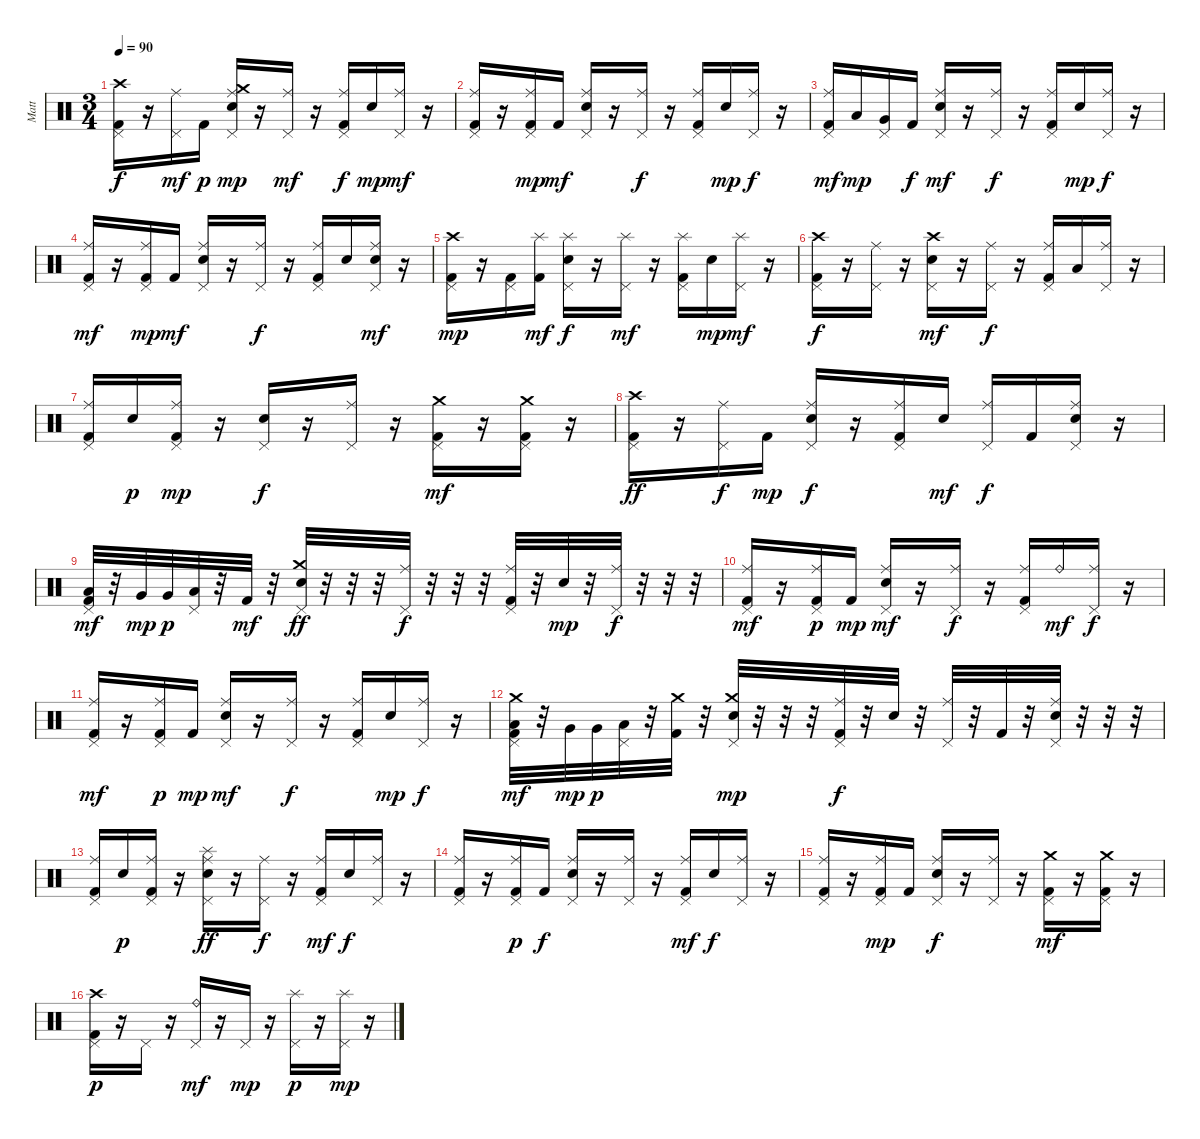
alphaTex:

\track ("Matt" "Matt") {instrument percussion}
\staff {score}
\articulation defaults
\ts (3 4)
\tempo 90
\clef neutral
\ks c
("Crash high (hit)" "Pedal Hi-Hat (hit)" "Kick (hit) 2").16{dy f} r.16 ("Pedal Hi-Hat (hit)" "Ride (middle)").16{dy mf} "Kick (hit) 2".16{dy p} ("Crash medium (hit)" "Pedal Hi-Hat (hit)" "Ride (middle)" "Electric Snare (hit)").16{dy mp} r.16 ("Pedal Hi-Hat (hit)" "Ride (middle)").16{dy mf} r.16 ("Pedal Hi-Hat (hit)" "Ride (middle)" "Kick (hit) 2").16{dy f} "Electric Snare (hit)".16{dy mp} ("Pedal Hi-Hat (hit)" "Ride (middle)").16{dy mf} r.16 |
("Pedal Hi-Hat (hit)" "Ride (middle)" "Kick (hit) 2").16 r.16 ("Pedal Hi-Hat (hit)" "Ride (middle)" "Kick (hit) 2").16{dy mp} "Kick (hit) 2".16{dy mf} ("Pedal Hi-Hat (hit)" "Ride (middle)" "Electric Snare (hit)").16 r.16 ("Pedal Hi-Hat (hit)" "Ride (middle)").16{dy f} r.16 ("Pedal Hi-Hat (hit)" "Ride (middle)" "Kick (hit) 2").16 "Electric Snare (hit)".16{dy mp} ("Pedal Hi-Hat (hit)" "Ride (middle)").16{dy f} r.16 |
("Pedal Hi-Hat (hit)" "Ride (middle)" "Kick (hit) 2").16{dy mf} "Low Tom (hit)".16{dy mp} ("Pedal Hi-Hat (hit)" "Very Low Tom (hit)").16 "Kick (hit) 2".16{dy f} ("Pedal Hi-Hat (hit)" "Ride (middle)" "Electric Snare (hit)").16{dy mf} r.16 ("Pedal Hi-Hat (hit)" "Ride (middle)").16{dy f} r.16 ("Pedal Hi-Hat (hit)" "Ride (middle)" "Kick (hit) 2").16 "Electric Snare (hit)".16{dy mp} ("Pedal Hi-Hat (hit)" "Ride (middle)").16{dy f} r.16 |
("Pedal Hi-Hat (hit)" "Ride (middle)" "Kick (hit) 2").16{dy mf} r.16 ("Pedal Hi-Hat (hit)" "Ride (middle)" "Kick (hit) 2").16{dy mp} "Kick (hit) 2".16{dy mf} ("Pedal Hi-Hat (hit)" "Ride (middle)" "Electric Snare (hit)").16 r.16 ("Pedal Hi-Hat (hit)" "Ride (middle)").16{dy f} r.16 ("Pedal Hi-Hat (hit)" "Ride (middle)" "Kick (hit) 2").16 "Electric Snare (hit)".16 ("Pedal Hi-Hat (hit)" "Ride (middle)" "Electric Snare (hit)").16{dy mf} r.16 |
("Crash high (hit)" "Pedal Hi-Hat (hit)" "Kick (hit) 2").16{dy mp} r.16 ("Pedal Hi-Hat (hit)" "Kick (hit) 2").16 ("Splash (hit)" "Kick (hit) 2").16{dy mf} ("Pedal Hi-Hat (hit)" "Splash (hit)" "Electric Snare (hit)").16{dy f} r.16 ("Pedal Hi-Hat (hit)" "Splash (hit)").16{dy mf} r.16 ("Pedal Hi-Hat (hit)" "Splash (hit)" "Kick (hit) 2").16 "Electric Snare (hit)".16{dy mp} ("Pedal Hi-Hat (hit)" "Splash (hit)").16{dy mf} r.16 |
("Crash high (hit)" "Pedal Hi-Hat (hit)" "Kick (hit) 2").16{dy f} r.16 ("Pedal Hi-Hat (hit)" "Ride (middle)").16 r.16 ("Crash high (hit)" "Pedal Hi-Hat (hit)" "Electric Snare (hit)").16{dy mf} r.16 ("Pedal Hi-Hat (hit)" "Ride (middle)").16{dy f} r.16 ("Pedal Hi-Hat (hit)" "Ride (middle)" "Kick (hit) 2").16 "Low Tom (hit)".16 ("Pedal Hi-Hat (hit)" "Ride (middle)").16 r.16 |
("Pedal Hi-Hat (hit)" "Ride (middle)" "Kick (hit) 2").16 "Electric Snare (hit)".16{dy p} ("Pedal Hi-Hat (hit)" "Ride (middle)" "Kick (hit) 2").16{dy mp} r.16 ("Pedal Hi-Hat (hit)" "Electric Snare (hit)").16{dy f} r.16 ("Pedal Hi-Hat (hit)" "Ride (middle)").16 r.16 ("Crash medium (hit)" "Pedal Hi-Hat (hit)" "Kick (hit) 2").16{dy mf} r.16 ("Crash medium (hit)" "Pedal Hi-Hat (hit)" "Kick (hit) 2").16 r.16 |
("Crash high (hit)" "Pedal Hi-Hat (hit)" "Kick (hit) 2").16{dy ff} r.16 ("Pedal Hi-Hat (hit)" "Ride (middle)").16{dy f} "Kick (hit) 2".16{dy mp} ("Pedal Hi-Hat (hit)" "Ride (middle)" "Electric Snare (hit)").16{dy f} r.16 ("Pedal Hi-Hat (hit)" "Ride (middle)" "Kick (hit) 2").16 "Electric Snare (hit)".16{dy mf} ("Pedal Hi-Hat (hit)" "Ride (middle)").16{dy f} "Kick (hit) 2".16 ("Pedal Hi-Hat (hit)" "Ride (middle)" "Electric Snare (hit)").16 r.16 |
("Pedal Hi-Hat (hit)" "Low Tom (hit)" "Kick (hit) 2").32{dy mf} r.32 "Very Low Tom (hit)".32{dy mp} "Very Low Tom (hit)".32{dy p} ("Pedal Hi-Hat (hit)" "Low Floor Tom (hit)").32 r.32 "Kick (hit) 2".32{dy mf} r.32 ("Crash medium (hit)" "Pedal Hi-Hat (hit)" "Electric Snare (hit)").32{dy ff} r.32 r.32 r.32 ("Pedal Hi-Hat (hit)" "Ride (middle)").32{dy f} r.32 r.32 r.32 ("Pedal Hi-Hat (hit)" "Ride (middle)" "Kick (hit) 2").32 r.32 "Electric Snare (hit)".32{dy mp} r.32 ("Pedal Hi-Hat (hit)" "Ride (middle)").32{dy f} r.32 r.32 r.32 |
("Pedal Hi-Hat (hit)" "Ride (middle)" "Kick (hit) 2").16{dy mf} r.16 ("Pedal Hi-Hat (hit)" "Ride (middle)" "Kick (hit) 2").16{dy p} "Kick (hit) 2".16{dy mp} ("Pedal Hi-Hat (hit)" "Ride (middle)" "Electric Snare (hit)").16{dy mf} r.16 ("Pedal Hi-Hat (hit)" "Ride (middle)").16{dy f} r.16 ("Pedal Hi-Hat (hit)" "Ride (middle)" "Kick (hit) 2").16 "Ride (bell)".16{dy mf} ("Pedal Hi-Hat (hit)" "Ride (middle)").16{dy f} r.16 |
("Pedal Hi-Hat (hit)" "Ride (middle)" "Kick (hit) 2").16{dy mf} r.16 ("Pedal Hi-Hat (hit)" "Ride (middle)" "Kick (hit) 2").16{dy p} "Kick (hit) 2".16{dy mp} ("Pedal Hi-Hat (hit)" "Ride (middle)" "Electric Snare (hit)").16{dy mf} r.16 ("Pedal Hi-Hat (hit)" "Ride (middle)").16{dy f} r.16 ("Pedal Hi-Hat (hit)" "Ride (middle)" "Kick (hit) 2").16 "Electric Snare (hit)".16{dy mp} ("Pedal Hi-Hat (hit)" "Ride (middle)").16{dy f} r.16 |
("Crash medium (hit)" "Pedal Hi-Hat (hit)" "Low Tom (hit)" "Kick (hit) 2").32{dy mf} r.32 "Very Low Tom (hit)".32{dy mp} "Very Low Tom (hit)".32{dy p} ("Pedal Hi-Hat (hit)" "Low Floor Tom (hit)").32 r.32 ("Crash medium (hit)" "Kick (hit) 2").32 r.32 ("Crash medium (hit)" "Pedal Hi-Hat (hit)" "Electric Snare (hit)").32{dy mp} r.32 r.32 r.32 ("Pedal Hi-Hat (hit)" "Ride (middle)" "Kick (hit) 2").32{dy f} r.32 "Electric Snare (hit)".32 r.32 ("Pedal Hi-Hat (hit)" "Ride (middle)").32 r.32 "Kick (hit) 2".32 r.32 ("Pedal Hi-Hat (hit)" "Ride (middle)" "Electric Snare (hit)").32 r.32 r.32 r.32 |
("Pedal Hi-Hat (hit)" "Ride (middle)" "Kick (hit) 2").16 "Electric Snare (hit)".16{dy p} ("Pedal Hi-Hat (hit)" "Ride (middle)" "Kick (hit) 2").16 r.16 ("Splash (hit)" "Pedal Hi-Hat (hit)" "Ride (middle)" "Electric Snare (hit)").16{dy ff} r.16 ("Pedal Hi-Hat (hit)" "Ride (middle)").16{dy f} r.16 ("Pedal Hi-Hat (hit)" "Ride (middle)" "Kick (hit) 2").16{dy mf} "Electric Snare (hit)".16{dy f} ("Pedal Hi-Hat (hit)" "Ride (middle)").16 r.16 |
("Pedal Hi-Hat (hit)" "Ride (middle)" "Kick (hit) 2").16 r.16 ("Pedal Hi-Hat (hit)" "Ride (middle)" "Kick (hit) 2").16{dy p} "Kick (hit) 2".16{dy f} ("Pedal Hi-Hat (hit)" "Ride (middle)" "Electric Snare (hit)").16 r.16 ("Pedal Hi-Hat (hit)" "Ride (middle)").16 r.16 ("Pedal Hi-Hat (hit)" "Ride (middle)" "Kick (hit) 2").16{dy mf} "Electric Snare (hit)".16{dy f} ("Pedal Hi-Hat (hit)" "Ride (middle)").16 r.16 |
("Pedal Hi-Hat (hit)" "Ride (middle)" "Kick (hit) 2").16 r.16 ("Pedal Hi-Hat (hit)" "Ride (middle)" "Kick (hit) 2").16{dy mp} "Kick (hit) 2".16 ("Pedal Hi-Hat (hit)" "Ride (middle)" "Electric Snare (hit)").16{dy f} r.16 ("Pedal Hi-Hat (hit)" "Ride (middle)").16 r.16 ("Crash medium (hit)" "Pedal Hi-Hat (hit)" "Kick (hit) 2").16{dy mf} r.16 ("Crash medium (hit)" "Pedal Hi-Hat (hit)" "Kick (hit) 2").16 r.16 |
("Crash high (hit)" "Pedal Hi-Hat (hit)" "Kick (hit) 2").16{dy p} r.16 "Pedal Hi-Hat (hit)".16 r.16 ("Pedal Hi-Hat (hit)" "Ride (bell)").16{dy mf} r.16 "Pedal Hi-Hat (hit)".16{dy mp} r.16 ("Splash (hit)" "Pedal Hi-Hat (hit)").16{dy p} r.16 ("Splash (hit)" "Pedal Hi-Hat (hit)").16{dy mp} r.16
